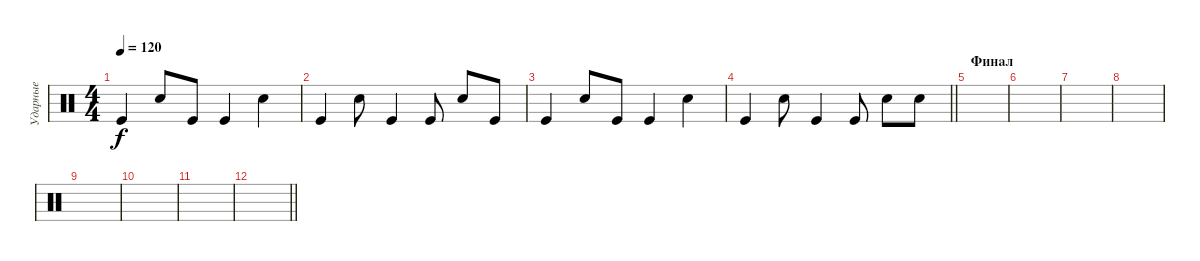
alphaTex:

\track ("Ударные" "Ударные") {instrument percussion}
\staff {score}
\articulation defaults
\ts (4 4)
\tempo 120
\clef neutral
\ks c "Kick (hit)".4{dy f} "Snare (hit) 2".8 "Kick (hit)".8 "Kick (hit)".4 "Snare (hit) 2".4
|
"Kick (hit)".4 "Snare (hit) 2".8 "Kick (hit)".4 "Kick (hit)".8 "Snare (hit) 2".8 "Kick (hit)".8 |
"Kick (hit)".4 "Snare (hit) 2".8 "Kick (hit)".8 "Kick (hit)".4 "Snare (hit) 2".4 |
\barLineRight lightlight "Kick (hit)".4 "Snare (hit) 2".8 "Kick (hit)".4 "Kick (hit)".8 "Snare (hit) 2".8 "Snare (hit) 2".8
|
\section ("" "Финал")
|
|
|
|
|
|
|
\barLineRight lightlight
